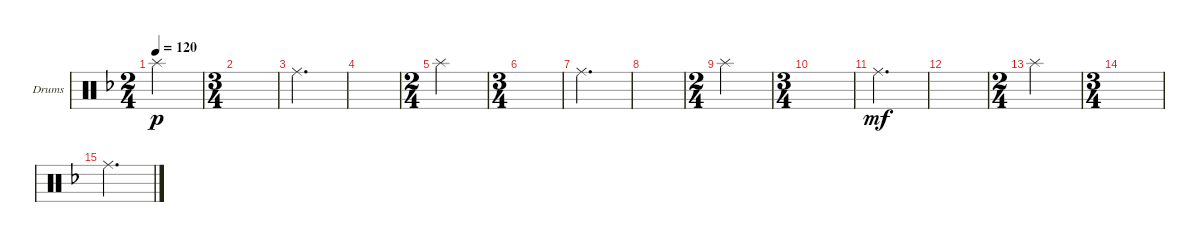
\defaultSystemsLayout 4
\bracketExtendMode groupsimilarinstruments
\firstSystemTrackNameOrientation horizontal
\otherSystemsTrackNameOrientation horizontal
\track ("Drumkit" "Drums") {instrument percussion}
\staff {score}
\articulation defaults
\ts (2 4)
\tempo 120
\clef neutral
\ks f "Splash (hit)".2{dy p}
|
\ts (3 4)
|
"Ride (middle)".2{d} |
|
\ts (2 4)
"Splash (hit)".2 |
\ts (3 4)
|
"Ride (middle)".2{d} |
|
\ts (2 4)
"Splash (hit)".2 |
\ts (3 4)
|
"Ride (middle)".2{d dy mf} |
|
\ts (2 4)
"Splash (hit)".2 |
\ts (3 4)
|
"Ride (middle)".2{d}
